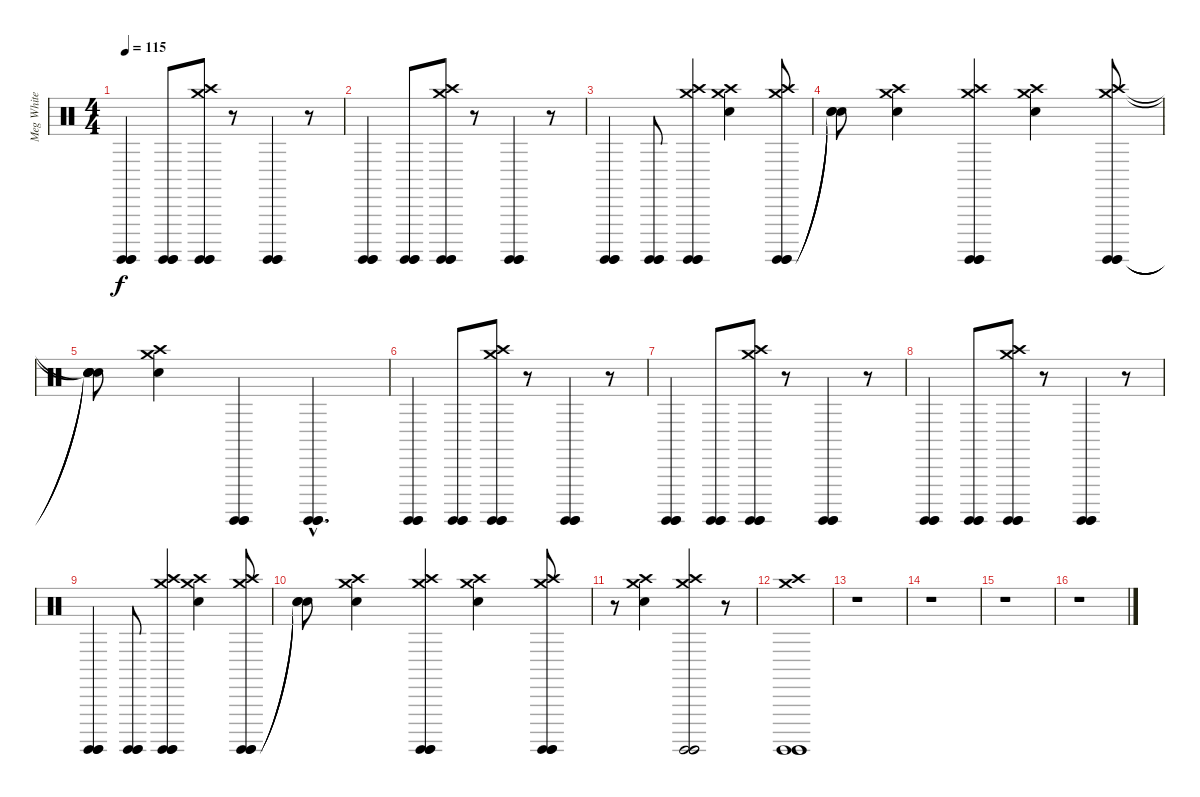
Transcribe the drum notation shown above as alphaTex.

\track ("Meg White" "Meg White") {instrument percussion}
\staff {score}
\articulation defaults
\ts (4 4)
\tempo 115
\clef neutral
\ks c
("Surdo (hit)" "Surdo (hit)" "Surdo (hit)").4{dy f} ("Surdo (hit)" "Surdo (hit)" "Surdo (hit)").8 ("Surdo (hit)" "Surdo (hit)" "Surdo (hit)" "Crash medium (hit)" "Crash high (hit)").8 r.8 ("Surdo (hit)" "Surdo (hit)" "Surdo (hit)").4 r.8 |
("Surdo (hit)" "Surdo (hit)" "Surdo (hit)").4 ("Surdo (hit)" "Surdo (hit)" "Surdo (hit)").8 ("Surdo (hit)" "Surdo (hit)" "Surdo (hit)" "Crash medium (hit)" "Crash high (hit)").8 r.8 ("Surdo (hit)" "Surdo (hit)" "Surdo (hit)").4 r.8 |
("Surdo (hit)" "Surdo (hit)" "Surdo (hit)").4 ("Surdo (hit)" "Surdo (hit)" "Surdo (hit)").8 ("Surdo (hit)" "Surdo (hit)" "Surdo (hit)" "Crash medium (hit)" "Crash high (hit)").4 ("Electric Snare (hit)" "Crash medium (hit)" "Crash high (hit)").4 ("Surdo (hit)" "Surdo (hit)" "Surdo (hit)" "Crash medium (hit)" "Crash high (hit)").8 |
("Snare (hit)"{t} "Snare (hit)"{t} "Snare (hit)"{t}).8 ("Electric Snare (hit)" "Crash medium (hit)" "Crash high (hit)").4 ("Surdo (hit)" "Surdo (hit)" "Surdo (hit)" "Crash medium (hit)" "Crash high (hit)").4 ("Electric Snare (hit)" "Crash medium (hit)" "Crash high (hit)").4 ("Surdo (hit)" "Surdo (hit)" "Surdo (hit)" "Crash medium (hit)" "Crash high (hit)").8 |
("Snare (hit)"{t} "Snare (hit)"{t} "Snare (hit)"{t} "Snare (hit)"{t} "Snare (hit)"{t}).8 ("Electric Snare (hit)" "Crash medium (hit)" "Crash high (hit)").4 ("Surdo (hit)" "Surdo (hit)" "Surdo (hit)").4 ("Surdo (hit)"{hac} "Surdo (hit)"{hac} "Surdo (hit)"{hac}).4{d} |
("Surdo (hit)" "Surdo (hit)" "Surdo (hit)").4 ("Surdo (hit)" "Surdo (hit)" "Surdo (hit)").8 ("Surdo (hit)" "Surdo (hit)" "Surdo (hit)" "Crash medium (hit)" "Crash high (hit)").8 r.8 ("Surdo (hit)" "Surdo (hit)" "Surdo (hit)").4 r.8 |
("Surdo (hit)" "Surdo (hit)" "Surdo (hit)").4 ("Surdo (hit)" "Surdo (hit)" "Surdo (hit)").8 ("Surdo (hit)" "Surdo (hit)" "Surdo (hit)" "Crash medium (hit)" "Crash high (hit)").8 r.8 ("Surdo (hit)" "Surdo (hit)" "Surdo (hit)").4 r.8 |
("Surdo (hit)" "Surdo (hit)" "Surdo (hit)").4 ("Surdo (hit)" "Surdo (hit)" "Surdo (hit)").8 ("Surdo (hit)" "Surdo (hit)" "Surdo (hit)" "Crash medium (hit)" "Crash high (hit)").8 r.8 ("Surdo (hit)" "Surdo (hit)" "Surdo (hit)").4 r.8 |
("Surdo (hit)" "Surdo (hit)" "Surdo (hit)").4 ("Surdo (hit)" "Surdo (hit)" "Surdo (hit)").8 ("Surdo (hit)" "Surdo (hit)" "Surdo (hit)" "Crash medium (hit)" "Crash high (hit)").4 ("Electric Snare (hit)" "Crash medium (hit)" "Crash high (hit)").4 ("Surdo (hit)" "Surdo (hit)" "Surdo (hit)" "Crash medium (hit)" "Crash high (hit)").8 |
("Snare (hit)"{t} "Snare (hit)"{t} "Snare (hit)"{t}).8 ("Electric Snare (hit)" "Crash medium (hit)" "Crash high (hit)").4 ("Surdo (hit)" "Surdo (hit)" "Surdo (hit)" "Crash medium (hit)" "Crash high (hit)").4 ("Electric Snare (hit)" "Crash medium (hit)" "Crash high (hit)").4 ("Surdo (hit)" "Surdo (hit)" "Surdo (hit)" "Crash medium (hit)" "Crash high (hit)").8 |
r.8 ("Electric Snare (hit)" "Crash medium (hit)" "Crash high (hit)").4 ("Surdo (hit)" "Surdo (hit)" "Surdo (hit)" "Crash medium (hit)" "Crash high (hit)").2 r.8 |
("Surdo (hit)" "Surdo (hit)" "Surdo (hit)" "Crash medium (hit)" "Crash high (hit)").1 |
r.1 |
r.1 |
r.1 |
r.1
